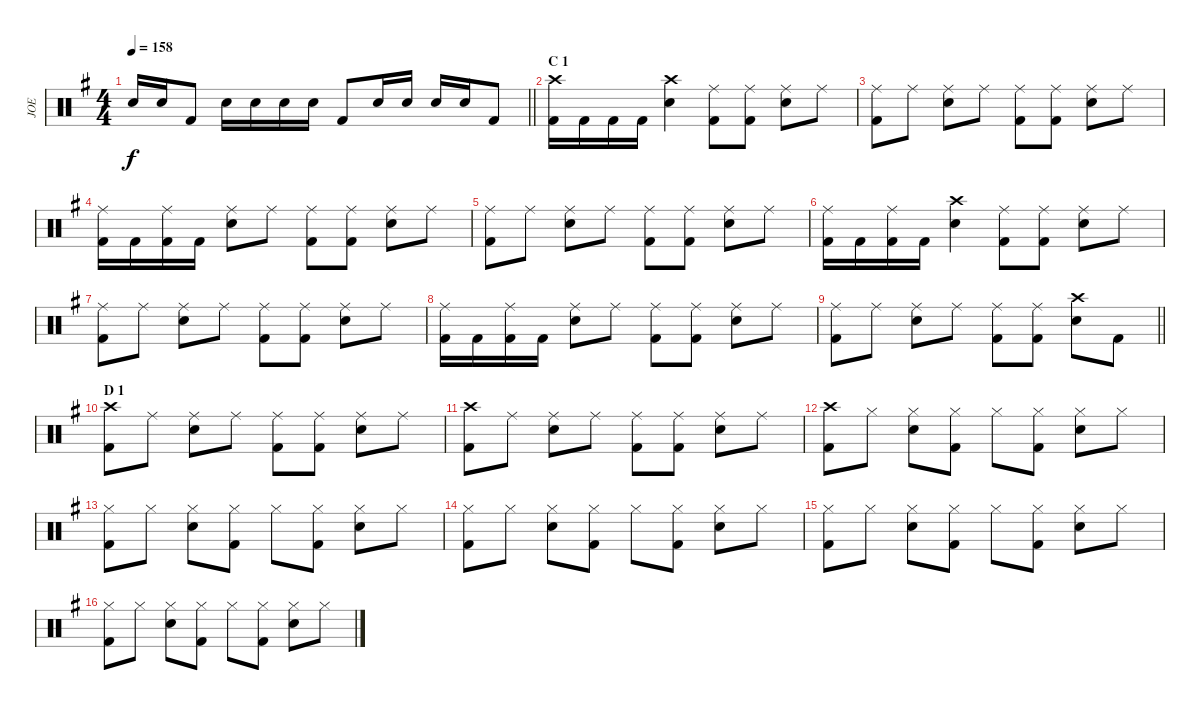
\track ("JOE" "JOE") {instrument percussion}
\staff {score}
\articulation defaults
\ts (4 4)
\tempo 158
\clef neutral
\barLineRight lightlight
\ks g "Snare (hit) 2".16{dy f} "Snare (hit) 2".16 "Kick (hit) 2".8 "Snare (hit) 2".16 "Snare (hit) 2".16 "Snare (hit) 2".16 "Snare (hit) 2".16 "Kick (hit) 2".8 "Snare (hit) 2".16 "Snare (hit) 2".16 "Snare (hit) 2".16 "Snare (hit) 2".16 "Kick (hit) 2".8
|
\section ("" "C 1")
("Crash high (hit)" "Kick (hit) 2").16 "Kick (hit) 2".16 "Kick (hit) 2".16 "Kick (hit) 2".16 ("Crash high (hit)" "Snare (hit) 2").4 ("Ride (middle)" "Kick (hit) 2").8 ("Ride (middle)" "Kick (hit) 2").8 ("Ride (middle)" "Snare (hit) 2").8 "Ride (middle)".8 |
("Ride (middle)" "Kick (hit) 2").8 "Ride (middle)".8 ("Ride (middle)" "Snare (hit) 2").8 "Ride (middle)".8 ("Ride (middle)" "Kick (hit) 2").8 ("Ride (middle)" "Kick (hit) 2").8 ("Ride (middle)" "Snare (hit) 2").8 "Ride (middle)".8 |
("Ride (middle)" "Kick (hit) 2").16 "Kick (hit) 2".16 ("Ride (middle)" "Kick (hit) 2").16 "Kick (hit) 2".16 ("Ride (middle)" "Snare (hit) 2").8 "Ride (middle)".8 ("Ride (middle)" "Kick (hit) 2").8 ("Ride (middle)" "Kick (hit) 2").8 ("Ride (middle)" "Snare (hit) 2").8 "Ride (middle)".8 |
("Ride (middle)" "Kick (hit) 2").8 "Ride (middle)".8 ("Ride (middle)" "Snare (hit) 2").8 "Ride (middle)".8 ("Ride (middle)" "Kick (hit) 2").8 ("Ride (middle)" "Kick (hit) 2").8 ("Ride (middle)" "Snare (hit) 2").8 "Ride (middle)".8 |
("Ride (middle)" "Kick (hit) 2").16 "Kick (hit) 2".16 ("Ride (middle)" "Kick (hit) 2").16 "Kick (hit) 2".16 ("Crash high (hit)" "Snare (hit) 2").4 ("Ride (middle)" "Kick (hit) 2").8 ("Ride (middle)" "Kick (hit) 2").8 ("Ride (middle)" "Snare (hit) 2").8 "Ride (middle)".8 |
("Ride (middle)" "Kick (hit) 2").8 "Ride (middle)".8 ("Ride (middle)" "Snare (hit) 2").8 "Ride (middle)".8 ("Ride (middle)" "Kick (hit) 2").8 ("Ride (middle)" "Kick (hit) 2").8 ("Ride (middle)" "Snare (hit) 2").8 "Ride (middle)".8 |
("Ride (middle)" "Kick (hit) 2").16 "Kick (hit) 2".16 ("Ride (middle)" "Kick (hit) 2").16 "Kick (hit) 2".16 ("Ride (middle)" "Snare (hit) 2").8 "Ride (middle)".8 ("Ride (middle)" "Kick (hit) 2").8 ("Ride (middle)" "Kick (hit) 2").8 ("Ride (middle)" "Snare (hit) 2").8 "Ride (middle)".8 |
\barLineRight lightlight
("Ride (middle)" "Kick (hit) 2").8 "Ride (middle)".8 ("Ride (middle)" "Snare (hit) 2").8 "Ride (middle)".8 ("Ride (middle)" "Kick (hit) 2").8 ("Ride (middle)" "Kick (hit) 2").8 ("Crash high (hit)" "Snare (hit) 2").8 "Kick (hit) 2".8 |
\section ("" "D 1")
("Crash high (hit)" "Kick (hit) 2").8 "Ride (middle)".8 ("Ride (middle)" "Snare (hit) 2").8 "Ride (middle)".8 ("Ride (middle)" "Kick (hit) 2").8 ("Ride (middle)" "Kick (hit) 2").8 ("Ride (middle)" "Snare (hit) 2").8 "Ride (middle)".8 |
("Crash high (hit)" "Kick (hit) 2").8 "Ride (middle)".8 ("Ride (middle)" "Snare (hit) 2").8 "Ride (middle)".8 ("Ride (middle)" "Kick (hit) 2").8 ("Ride (middle)" "Kick (hit) 2").8 ("Ride (middle)" "Snare (hit) 2").8 "Ride (middle)".8 |
("Crash high (hit)" "Kick (hit) 2").8 "Hi-Hat (closed)".8 ("Hi-Hat (closed)" "Snare (hit) 2").8 ("Hi-Hat (closed)" "Kick (hit) 2").8 "Hi-Hat (closed)".8 ("Hi-Hat (closed)" "Kick (hit) 2").8 ("Hi-Hat (closed)" "Snare (hit) 2").8 "Hi-Hat (closed)".8 |
("Hi-Hat (closed)" "Kick (hit) 2").8 "Hi-Hat (closed)".8 ("Hi-Hat (closed)" "Snare (hit) 2").8 ("Hi-Hat (closed)" "Kick (hit) 2").8 "Hi-Hat (closed)".8 ("Hi-Hat (closed)" "Kick (hit) 2").8 ("Hi-Hat (closed)" "Snare (hit) 2").8 "Hi-Hat (closed)".8 |
("Hi-Hat (closed)" "Kick (hit) 2").8 "Hi-Hat (closed)".8 ("Hi-Hat (closed)" "Snare (hit) 2").8 ("Hi-Hat (closed)" "Kick (hit) 2").8 "Hi-Hat (closed)".8 ("Hi-Hat (closed)" "Kick (hit) 2").8 ("Hi-Hat (closed)" "Snare (hit) 2").8 "Hi-Hat (closed)".8 |
("Hi-Hat (closed)" "Kick (hit) 2").8 "Hi-Hat (closed)".8 ("Hi-Hat (closed)" "Snare (hit) 2").8 ("Hi-Hat (closed)" "Kick (hit) 2").8 "Hi-Hat (closed)".8 ("Hi-Hat (closed)" "Kick (hit) 2").8 ("Hi-Hat (closed)" "Snare (hit) 2").8 "Hi-Hat (closed)".8 |
("Hi-Hat (closed)" "Kick (hit) 2").8 "Hi-Hat (closed)".8 ("Hi-Hat (closed)" "Snare (hit) 2").8 ("Hi-Hat (closed)" "Kick (hit) 2").8 "Hi-Hat (closed)".8 ("Hi-Hat (closed)" "Kick (hit) 2").8 ("Hi-Hat (closed)" "Snare (hit) 2").8 "Hi-Hat (closed)".8
